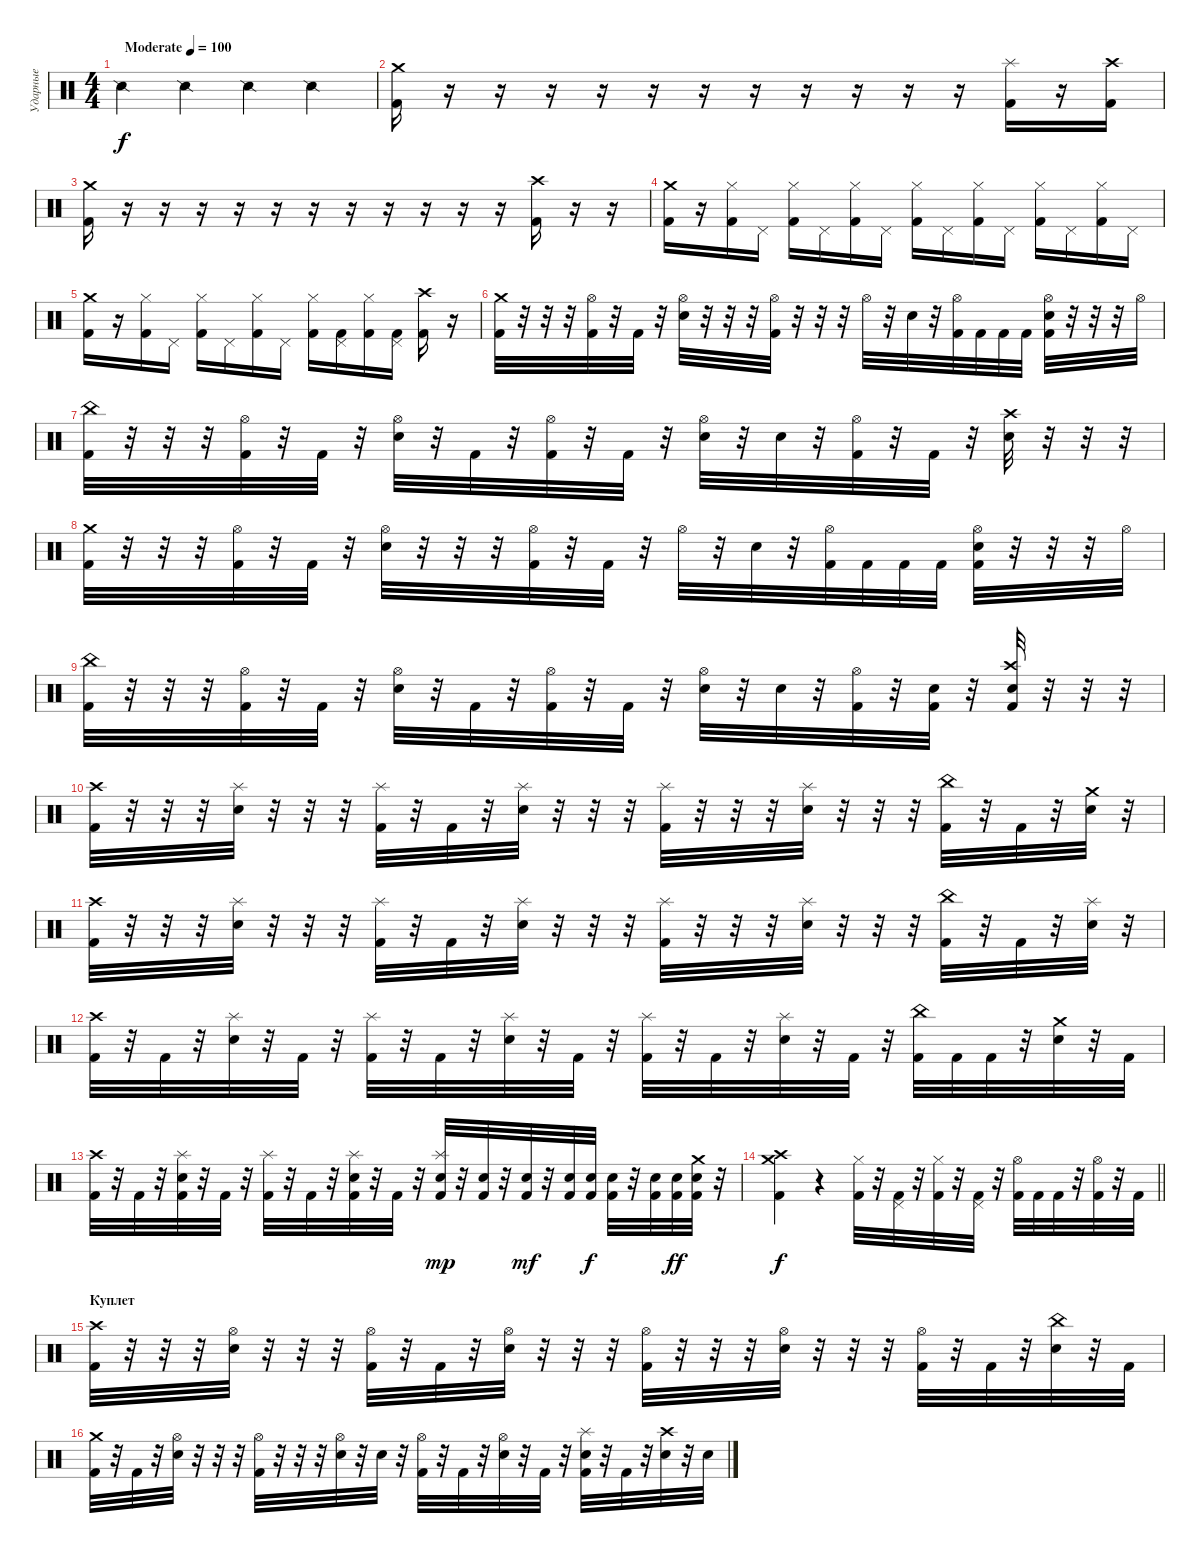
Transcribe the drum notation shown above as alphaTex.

\track ("Ударные" "Ударные") {instrument percussion}
\staff {score}
\articulation defaults
\ts (4 4)
\tempo (100 "Moderate")
\clef neutral
\ks c "Snare (side stick) 2".4{dy f} "Snare (side stick) 2".4 "Snare (side stick) 2".4 "Snare (side stick) 2".4
|
("Crash medium (hit)" "Kick (hit) 2").16 r.16 r.16 r.16 r.16 r.16 r.16 r.16 r.16 r.16 r.16 r.16 ("Splash (hit)" "Kick (hit) 2").16 r.16 ("Crash high (hit)" "Kick (hit) 2").16 |
("Crash medium (hit)" "Kick (hit) 2").16 r.16 r.16 r.16 r.16 r.16 r.16 r.16 r.16 r.16 r.16 r.16 ("Crash high (hit)" "Kick (hit) 2").16 r.16 r.16 |
("Crash medium (hit)" "Kick (hit) 2").16 r.16 ("Hi-Hat (closed)" "Kick (hit) 2").16 "Pedal Hi-Hat (hit)".16 ("Hi-Hat (closed)" "Kick (hit) 2").16 "Pedal Hi-Hat (hit)".16 ("Hi-Hat (closed)" "Kick (hit) 2").16 "Pedal Hi-Hat (hit)".16 ("Hi-Hat (closed)" "Kick (hit) 2").16 "Pedal Hi-Hat (hit)".16 ("Hi-Hat (closed)" "Kick (hit) 2").16 "Pedal Hi-Hat (hit)".16 ("Hi-Hat (closed)" "Kick (hit) 2").16 "Pedal Hi-Hat (hit)".16 ("Hi-Hat (closed)" "Kick (hit) 2").16 "Pedal Hi-Hat (hit)".16 |
("Crash medium (hit)" "Kick (hit) 2").16 r.16 ("Hi-Hat (closed)" "Kick (hit) 2").16 "Pedal Hi-Hat (hit)".16 ("Hi-Hat (closed)" "Kick (hit) 2").16 "Pedal Hi-Hat (hit)".16 ("Hi-Hat (closed)" "Kick (hit) 2").16 "Pedal Hi-Hat (hit)".16 ("Hi-Hat (closed)" "Kick (hit) 2").16 ("Pedal Hi-Hat (hit)" "Kick (hit) 2").16 ("Hi-Hat (closed)" "Kick (hit) 2").16 ("Pedal Hi-Hat (hit)" "Kick (hit) 2").16 ("Crash high (hit)" "Kick (hit) 2").16 r.16 |
("Crash medium (hit)" "Kick (hit) 2").32 r.32 r.32 r.32 ("Hi-Hat (open)" "Kick (hit) 2").32 r.32 "Kick (hit) 2".32 r.32 ("Hi-Hat (open)" "Snare (hit) 2").32 r.32 r.32 r.32 ("Hi-Hat (open)" "Kick (hit) 2").32 r.32 r.32 r.32 "Hi-Hat (open)".32 r.32 "Snare (hit) 2".32 r.32 ("Hi-Hat (open)" "Kick (hit) 2").32 "Kick (hit) 2".32 "Kick (hit) 2".32 "Kick (hit) 2".32 ("Hi-Hat (open)" "Snare (hit) 2" "Kick (hit) 2").32 r.32 r.32 r.32 "Hi-Hat (open)".32 |
("China (hit)" "Kick (hit) 2").32 r.32 r.32 r.32 ("Hi-Hat (open)" "Kick (hit) 2").32 r.32 "Kick (hit) 2".32 r.32 ("Hi-Hat (open)" "Snare (hit) 2").32 r.32 "Kick (hit) 2".32 r.32 ("Hi-Hat (open)" "Kick (hit) 2").32 r.32 "Kick (hit) 2".32 r.32 ("Hi-Hat (open)" "Snare (hit) 2").32 r.32 "Snare (hit) 2".32 r.32 ("Hi-Hat (open)" "Kick (hit) 2").32 r.32 "Kick (hit) 2".32 r.32 ("Crash high (hit)" "Snare (hit) 2").32 r.32 r.32 r.32 |
("Crash medium (hit)" "Kick (hit) 2").32 r.32 r.32 r.32 ("Hi-Hat (open)" "Kick (hit) 2").32 r.32 "Kick (hit) 2".32 r.32 ("Hi-Hat (open)" "Snare (hit) 2").32 r.32 r.32 r.32 ("Hi-Hat (open)" "Kick (hit) 2").32 r.32 "Kick (hit) 2".32 r.32 "Hi-Hat (open)".32 r.32 "Snare (hit) 2".32 r.32 ("Hi-Hat (open)" "Kick (hit) 2").32 "Kick (hit) 2".32 "Kick (hit) 2".32 "Kick (hit) 2".32 ("Hi-Hat (open)" "Snare (hit) 2" "Kick (hit) 2").32 r.32 r.32 r.32 "Hi-Hat (open)".32 |
("China (hit)" "Kick (hit) 2").32 r.32 r.32 r.32 ("Hi-Hat (open)" "Kick (hit) 2").32 r.32 "Kick (hit) 2".32 r.32 ("Hi-Hat (open)" "Snare (hit) 2").32 r.32 "Kick (hit) 2".32 r.32 ("Hi-Hat (open)" "Kick (hit) 2").32 r.32 "Kick (hit) 2".32 r.32 ("Hi-Hat (open)" "Snare (hit) 2").32 r.32 "Snare (hit) 2".32 r.32 ("Hi-Hat (open)" "Kick (hit) 2").32 r.32 ("Snare (hit) 2" "Kick (hit) 2").32 r.32 ("Crash high (hit)" "Snare (hit) 2" "Kick (hit) 2").32 r.32 r.32 r.32 |
("Crash high (hit)" "Kick (hit) 2").32 r.32 r.32 r.32 ("Splash (hit)" "Snare (hit) 2").32 r.32 r.32 r.32 ("Splash (hit)" "Kick (hit) 2").32 r.32 "Kick (hit) 2".32 r.32 ("Splash (hit)" "Snare (hit) 2").32 r.32 r.32 r.32 ("Splash (hit)" "Kick (hit) 2").32 r.32 r.32 r.32 ("Splash (hit)" "Snare (hit) 2").32 r.32 r.32 r.32 ("China (hit)" "Kick (hit) 2").32 r.32 "Kick (hit) 2".32 r.32 ("Crash medium (hit)" "Snare (hit) 2").32 r.32 |
("Crash high (hit)" "Kick (hit) 2").32 r.32 r.32 r.32 ("Splash (hit)" "Snare (hit) 2").32 r.32 r.32 r.32 ("Splash (hit)" "Kick (hit) 2").32 r.32 "Kick (hit) 2".32 r.32 ("Splash (hit)" "Snare (hit) 2").32 r.32 r.32 r.32 ("Splash (hit)" "Kick (hit) 2").32 r.32 r.32 r.32 ("Splash (hit)" "Snare (hit) 2").32 r.32 r.32 r.32 ("China (hit)" "Kick (hit) 2").32 r.32 "Kick (hit) 2".32 r.32 ("Splash (hit)" "Snare (hit) 2").32 r.32 |
("Crash high (hit)" "Kick (hit) 2").32 r.32 "Kick (hit) 2".32 r.32 ("Splash (hit)" "Snare (hit) 2").32 r.32 "Kick (hit) 2".32 r.32 ("Splash (hit)" "Kick (hit) 2").32 r.32 "Kick (hit) 2".32 r.32 ("Splash (hit)" "Snare (hit) 2").32 r.32 "Kick (hit) 2".32 r.32 ("Splash (hit)" "Kick (hit) 2").32 r.32 "Kick (hit) 2".32 r.32 ("Splash (hit)" "Snare (hit) 2").32 r.32 "Kick (hit) 2".32 r.32 ("China (hit)" "Kick (hit) 2").32 "Kick (hit) 2".32 "Kick (hit) 2".32 r.32 ("Crash medium (hit)" "Snare (hit) 2").32 r.32 "Kick (hit) 2".32 |
("Crash high (hit)" "Kick (hit) 2").32 r.32 "Kick (hit) 2".32 r.32 ("Splash (hit)" "Snare (hit) 2" "Kick (hit) 2").32 r.32 "Kick (hit) 2".32 r.32 ("Splash (hit)" "Kick (hit) 2").32 r.32 "Kick (hit) 2".32 r.32 ("Splash (hit)" "Snare (hit) 2" "Kick (hit) 2").32 r.32 "Kick (hit) 2".32 r.32 ("Splash (hit)" "Snare (hit) 2" "Kick (hit) 2").32{dy mp} r.32 ("Snare (hit) 2" "Kick (hit) 2").32 r.32 ("Snare (hit) 2" "Kick (hit) 2").32{dy mf} r.32 ("Snare (hit) 2" "Kick (hit) 2").32 ("Snare (hit) 2" "Kick (hit) 2").32{dy f} ("Snare (hit) 2" "Kick (hit) 2").32 r.32 ("Snare (hit) 2" "Kick (hit) 2").32 ("Snare (hit) 2" "Kick (hit) 2").32{dy ff} ("Crash medium (hit)" "Snare (hit) 2" "Kick (hit) 2").32 r.32 |
\barLineRight lightlight
("Crash medium (hit)" "Crash high (hit)" "Kick (hit) 2").4{dy f} r.4 ("Hi-Hat (closed)" "Kick (hit) 2").32 r.32 ("Pedal Hi-Hat (hit)" "Kick (hit) 2").32 r.32 ("Hi-Hat (closed)" "Kick (hit) 2").32 r.32 ("Pedal Hi-Hat (hit)" "Kick (hit) 2").32 r.32 ("Hi-Hat (open)" "Kick (hit) 2").32 "Kick (hit) 2".32 "Kick (hit) 2".32 r.32 ("Hi-Hat (open)" "Kick (hit) 2").32 r.32 "Kick (hit) 2".32 |
\section ("" "Куплет")
("Crash high (hit)" "Kick (hit) 2").32 r.32 r.32 r.32 ("Hi-Hat (open)" "Snare (hit) 2").32 r.32 r.32 r.32 ("Hi-Hat (open)" "Kick (hit) 2").32 r.32 "Kick (hit) 2".32 r.32 ("Hi-Hat (open)" "Snare (hit) 2").32 r.32 r.32 r.32 ("Hi-Hat (open)" "Kick (hit) 2").32 r.32 r.32 r.32 ("Hi-Hat (open)" "Snare (hit) 2").32 r.32 r.32 r.32 ("Hi-Hat (open)" "Kick (hit) 2").32 r.32 "Kick (hit) 2".32 r.32 ("China (hit)" "Snare (hit) 2").32 r.32 "Kick (hit) 2".32 |
("Crash medium (hit)" "Kick (hit) 2").32 r.32 "Kick (hit) 2".32 r.32 ("Hi-Hat (open)" "Snare (hit) 2").32 r.32 r.32 r.32 ("Hi-Hat (open)" "Kick (hit) 2").32 r.32 r.32 r.32 ("Hi-Hat (open)" "Snare (hit) 2").32 r.32 "Snare (hit) 2".32 r.32 ("Hi-Hat (open)" "Kick (hit) 2").32 r.32 "Kick (hit) 2".32 r.32 ("Hi-Hat (open)" "Snare (hit) 2").32 r.32 "Kick (hit) 2".32 r.32 ("Splash (hit)" "Snare (hit) 2" "Kick (hit) 2").32 r.32 "Kick (hit) 2".32 r.32 ("Crash high (hit)" "Snare (hit) 2").32 r.32 "Snare (hit) 2".32
